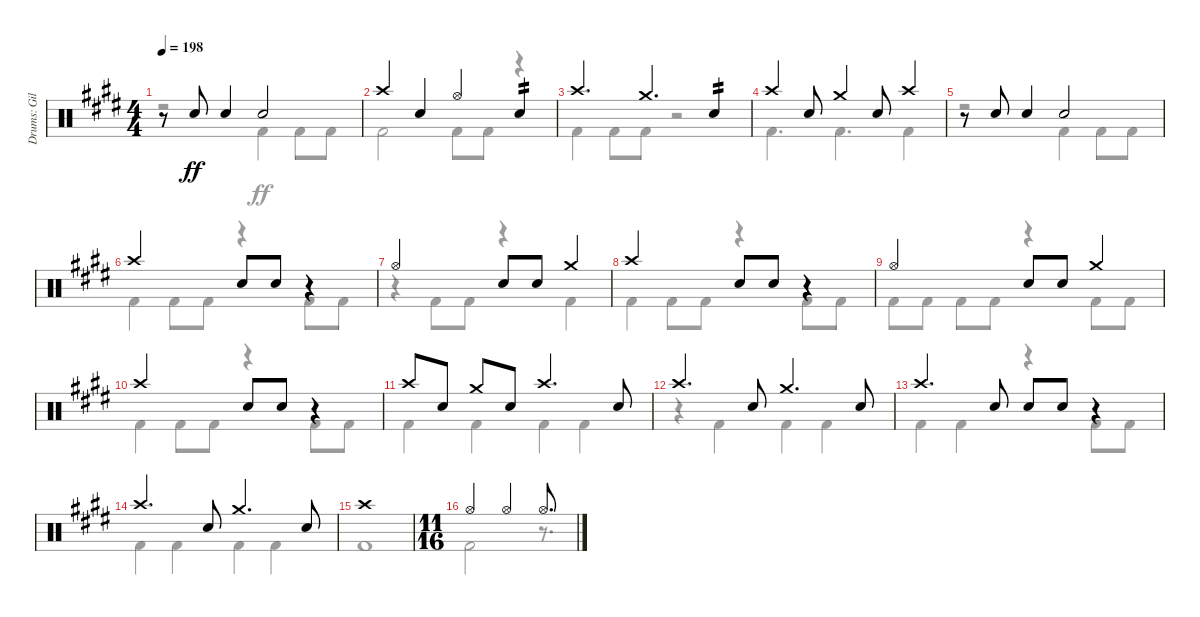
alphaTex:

\track ("Drums: Gil" "Drums: Gil") {instrument percussion}
\staff {score}
\articulation defaults
\voice
\ts (4 4)
\tempo 198
\clef neutral
\ks e
r.8{dy ff} "Snare (hit) 2".8 "Snare (hit) 2".4 "Snare (hit) 2".2 |
"Crash high (hit)".4 "Snare (hit) 2".4{beam merge} "Hi-Hat (open)".4 "Electric Snare (hit)".4{tp 2} |
"Crash high (hit)".4{d} "Crash medium (hit)".4{d} "Snare (hit) 2".4{tp 2} |
"Crash high (hit)".4 "Snare (hit) 2".8 "Crash medium (hit)".4 "Snare (hit) 2".8 "Crash high (hit)".4 |
r.8 "Snare (hit) 2".8 "Snare (hit) 2".4 "Snare (hit) 2".2 |
"Crash high (hit)".2 "Snare (hit) 2".8 "Snare (hit) 2".8 r.4 |
"Hi-Hat (open)".2 "Snare (hit) 2".8 "Snare (hit) 2".8 "Crash medium (hit)".4 |
"Crash high (hit)".2 "Snare (hit) 2".8 "Snare (hit) 2".8 r.4 |
"Hi-Hat (open)".2 "Snare (hit) 2".8 "Snare (hit) 2".8 "Crash medium (hit)".4 |
"Crash high (hit)".2 "Snare (hit) 2".8 "Snare (hit) 2".8 r.4 |
"Crash high (hit)".8 "Snare (hit) 2".8 "Crash medium (hit)".8 "Snare (hit) 2".8 "Crash high (hit)".4{d} "Snare (hit) 2".8 |
"Crash high (hit)".4{d} "Snare (hit) 2".8 "Crash medium (hit)".4{d} "Snare (hit) 2".8 |
"Crash high (hit)".4{d} "Snare (hit) 2".8 "Snare (hit) 2".8 "Snare (hit) 2".8 r.4 |
"Crash high (hit)".4{d} "Snare (hit) 2".8 "Crash medium (hit)".4{d} "Snare (hit) 2".8 |
"Crash high (hit)".1 |
\ts (11 16)
"Hi-Hat (open)".4 "Hi-Hat (open)".4 "Hi-Hat (open)".8{d}
\voice
\clef neutral
\ottava regular
\simile none
\ks e
r.2{dy ff} "Kick (hit) 2".4 "Kick (hit) 2".8 "Kick (hit) 2".8 |
"Kick (hit) 2".2 "Kick (hit) 2".8 "Kick (hit) 2".8 r.4 |
"Kick (hit) 2".4 "Kick (hit) 2".8 "Kick (hit) 2".8 r.2 |
"Kick (hit) 2".4{d} "Kick (hit) 2".4{d} "Kick (hit) 2".4 |
r.2 "Kick (hit) 2".4 "Kick (hit) 2".8 "Kick (hit) 2".8 |
"Kick (hit) 2".4 "Kick (hit) 2".8 "Kick (hit) 2".8 r.4 "Kick (hit) 2".8 "Kick (hit) 2".8 |
r.4 "Kick (hit) 2".8 "Kick (hit) 2".8 r.4 "Kick (hit) 2".4 |
"Kick (hit) 2".4 "Kick (hit) 2".8 "Kick (hit) 2".8 r.4 "Kick (hit) 2".8 "Kick (hit) 2".8 |
"Kick (hit) 2".8 "Kick (hit) 2".8 "Kick (hit) 2".8 "Kick (hit) 2".8 r.4 "Kick (hit) 2".8 "Kick (hit) 2".8 |
"Kick (hit) 2".4 "Kick (hit) 2".8 "Kick (hit) 2".8 r.4 "Kick (hit) 2".8 "Kick (hit) 2".8 |
"Kick (hit) 2".4 "Kick (hit) 2".4 "Kick (hit) 2".4 "Kick (hit) 2".4 |
r.4 "Kick (hit) 2".4 "Kick (hit) 2".4 "Kick (hit) 2".4 |
"Kick (hit) 2".4{beam merge} "Kick (hit) 2".4 r.4 "Kick (hit) 2".8 "Kick (hit) 2".8 |
"Kick (hit) 2".4 "Kick (hit) 2".4{beam merge} "Kick (hit) 2".4 "Kick (hit) 2".4 |
"Kick (hit) 2".1 |
"Kick (hit) 2".2 r.8{d}
